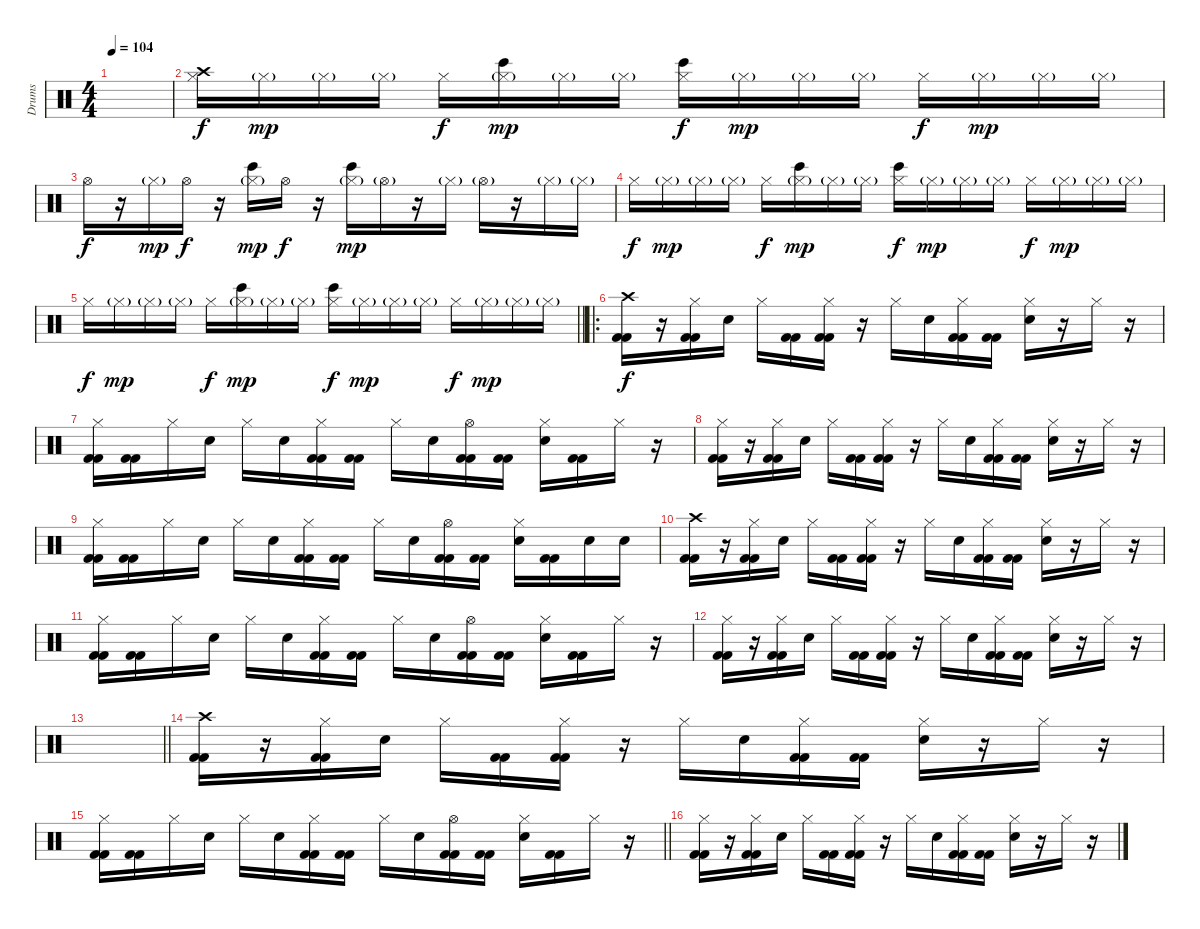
\track ("Drums" "Drums") {instrument percussion}
\staff {score}
\articulation defaults
\ts (4 4)
\tempo 104
\clef neutral
\ks c
|
("Crash high (hit)" "Hi-Hat (closed)").16 "Hi-Hat (closed)"{g}.16{dy mp} "Hi-Hat (closed)"{g}.16 "Hi-Hat (closed)"{g}.16 "Hi-Hat (closed)".16{dy f} ("Bongo High (hit)" "Hi-Hat (closed)"{g}).16{dy mp} "Hi-Hat (closed)"{g}.16 "Hi-Hat (closed)"{g}.16 ("Bongo High (hit)" "Hi-Hat (closed)").16{dy f} "Hi-Hat (closed)"{g}.16{dy mp} "Hi-Hat (closed)"{g}.16 "Hi-Hat (closed)"{g}.16 "Hi-Hat (closed)".16{dy f} "Hi-Hat (closed)"{g}.16{dy mp} "Hi-Hat (closed)"{g}.16 "Hi-Hat (closed)"{g}.16 |
"Hi-Hat (open)".16{dy f} r.16 "Hi-Hat (closed)"{g}.16{dy mp} "Hi-Hat (open)".16{dy f} r.16 ("Bongo High (hit)" "Hi-Hat (closed)"{g}).16{dy mp} "Hi-Hat (open)".16{dy f} r.16 ("Bongo High (hit)" "Hi-Hat (closed)"{g}).16{dy mp} "Hi-Hat (open)"{g}.16 r.16 "Hi-Hat (closed)"{g}.16 "Hi-Hat (open)"{g}.16 r.16 "Hi-Hat (closed)"{g}.16 "Hi-Hat (closed)"{g}.16 |
"Hi-Hat (closed)".16{dy f} "Hi-Hat (closed)"{g}.16{dy mp} "Hi-Hat (closed)"{g}.16 "Hi-Hat (closed)"{g}.16 "Hi-Hat (closed)".16{dy f} ("Bongo High (hit)" "Hi-Hat (closed)"{g}).16{dy mp} "Hi-Hat (closed)"{g}.16 "Hi-Hat (closed)"{g}.16 ("Bongo High (hit)" "Hi-Hat (closed)").16{dy f} "Hi-Hat (closed)"{g}.16{dy mp} "Hi-Hat (closed)"{g}.16 "Hi-Hat (closed)"{g}.16 "Hi-Hat (closed)".16{dy f} "Hi-Hat (closed)"{g}.16{dy mp} "Hi-Hat (closed)"{g}.16 "Hi-Hat (closed)"{g}.16 |
\barLineRight lightlight "Hi-Hat (closed)".16{dy f} "Hi-Hat (closed)"{g}.16{dy mp} "Hi-Hat (closed)"{g}.16 "Hi-Hat (closed)"{g}.16 "Hi-Hat (closed)".16{dy f}
("Bongo High (hit)" "Hi-Hat (closed)"{g}).16{dy mp} "Hi-Hat (closed)"{g}.16 "Hi-Hat (closed)"{g}.16 ("Bongo High (hit)" "Hi-Hat (closed)").16{dy f} "Hi-Hat (closed)"{g}.16{dy mp} "Hi-Hat (closed)"{g}.16 "Hi-Hat (closed)"{g}.16 "Hi-Hat (closed)".16{dy f} "Hi-Hat (closed)"{g}.16{dy mp} "Hi-Hat (closed)"{g}.16 "Hi-Hat (closed)"{g}.16 |
\ro
\section ("" "")
("Crash high (hit)" "Kick (hit) 2" "Kick (hit) 2").16{dy f} r.16 ("Hi-Hat (closed)" "Kick (hit) 2" "Kick (hit) 2").16 "Snare (hit) 2".16 "Hi-Hat (closed)".16 ("Kick (hit) 2" "Kick (hit) 2").16 ("Hi-Hat (closed)" "Kick (hit) 2" "Kick (hit) 2").16 r.16 "Hi-Hat (closed)".16 "Snare (hit) 2".16 ("Hi-Hat (closed)" "Kick (hit) 2" "Kick (hit) 2").16 ("Kick (hit) 2" "Kick (hit) 2").16 ("Hi-Hat (closed)" "Snare (hit) 2").16 r.16 "Hi-Hat (closed)".16 r.16 |
("Hi-Hat (closed)" "Kick (hit) 2" "Kick (hit) 2").16 ("Kick (hit) 2" "Kick (hit) 2").16 "Hi-Hat (closed)".16 "Snare (hit) 2".16 "Hi-Hat (closed)".16 "Snare (hit) 2".16 ("Hi-Hat (closed)" "Kick (hit) 2" "Kick (hit) 2").16 ("Kick (hit) 2" "Kick (hit) 2").16 "Hi-Hat (closed)".16 "Snare (hit) 2".16 ("Hi-Hat (open)" "Kick (hit) 2" "Kick (hit) 2").16 ("Kick (hit) 2" "Kick (hit) 2").16 ("Hi-Hat (closed)" "Snare (hit) 2").16 ("Kick (hit) 2" "Kick (hit) 2").16 "Hi-Hat (closed)".16 r.16 |
("Hi-Hat (closed)" "Kick (hit) 2" "Kick (hit) 2").16 r.16 ("Hi-Hat (closed)" "Kick (hit) 2" "Kick (hit) 2").16 "Snare (hit) 2".16 "Hi-Hat (closed)".16 ("Kick (hit) 2" "Kick (hit) 2").16 ("Hi-Hat (closed)" "Kick (hit) 2" "Kick (hit) 2").16 r.16 "Hi-Hat (closed)".16 "Snare (hit) 2".16 ("Hi-Hat (closed)" "Kick (hit) 2" "Kick (hit) 2").16 ("Kick (hit) 2" "Kick (hit) 2").16 ("Hi-Hat (closed)" "Snare (hit) 2").16 r.16 "Hi-Hat (closed)".16 r.16 |
("Hi-Hat (closed)" "Kick (hit) 2" "Kick (hit) 2").16 ("Kick (hit) 2" "Kick (hit) 2").16 "Hi-Hat (closed)".16 "Snare (hit) 2".16 "Hi-Hat (closed)".16 "Snare (hit) 2".16 ("Hi-Hat (closed)" "Kick (hit) 2" "Kick (hit) 2").16 ("Kick (hit) 2" "Kick (hit) 2").16 "Hi-Hat (closed)".16 "Snare (hit) 2".16 ("Hi-Hat (open)" "Kick (hit) 2" "Kick (hit) 2").16 ("Kick (hit) 2" "Kick (hit) 2").16 ("Hi-Hat (closed)" "Snare (hit) 2").16 ("Kick (hit) 2" "Kick (hit) 2").16 "Snare (hit) 2".16 "Snare (hit) 2".16 |
("Crash high (hit)" "Kick (hit) 2" "Kick (hit) 2").16 r.16 ("Hi-Hat (closed)" "Kick (hit) 2" "Kick (hit) 2").16 "Snare (hit) 2".16 "Hi-Hat (closed)".16 ("Kick (hit) 2" "Kick (hit) 2").16 ("Hi-Hat (closed)" "Kick (hit) 2" "Kick (hit) 2").16 r.16 "Hi-Hat (closed)".16 "Snare (hit) 2".16 ("Hi-Hat (closed)" "Kick (hit) 2" "Kick (hit) 2").16 ("Kick (hit) 2" "Kick (hit) 2").16 ("Hi-Hat (closed)" "Snare (hit) 2").16 r.16 "Hi-Hat (closed)".16 r.16 |
("Hi-Hat (closed)" "Kick (hit) 2" "Kick (hit) 2").16 ("Kick (hit) 2" "Kick (hit) 2").16 "Hi-Hat (closed)".16 "Snare (hit) 2".16 "Hi-Hat (closed)".16 "Snare (hit) 2".16 ("Hi-Hat (closed)" "Kick (hit) 2" "Kick (hit) 2").16 ("Kick (hit) 2" "Kick (hit) 2").16 "Hi-Hat (closed)".16 "Snare (hit) 2".16 ("Hi-Hat (open)" "Kick (hit) 2" "Kick (hit) 2").16 ("Kick (hit) 2" "Kick (hit) 2").16 ("Hi-Hat (closed)" "Snare (hit) 2").16 ("Kick (hit) 2" "Kick (hit) 2").16 "Hi-Hat (closed)".16 r.16 |
("Hi-Hat (closed)" "Kick (hit) 2" "Kick (hit) 2").16 r.16 ("Hi-Hat (closed)" "Kick (hit) 2" "Kick (hit) 2").16 "Snare (hit) 2".16 "Hi-Hat (closed)".16 ("Kick (hit) 2" "Kick (hit) 2").16 ("Hi-Hat (closed)" "Kick (hit) 2" "Kick (hit) 2").16 r.16 "Hi-Hat (closed)".16 "Snare (hit) 2".16 ("Hi-Hat (closed)" "Kick (hit) 2" "Kick (hit) 2").16 ("Kick (hit) 2" "Kick (hit) 2").16 ("Hi-Hat (closed)" "Snare (hit) 2").16 r.16 "Hi-Hat (closed)".16 r.16 |
\barLineRight lightlight
|
\section ("" "")
("Crash high (hit)" "Kick (hit) 2" "Kick (hit) 2").16 r.16 ("Hi-Hat (closed)" "Kick (hit) 2" "Kick (hit) 2").16 "Snare (hit) 2".16 "Hi-Hat (closed)".16 ("Kick (hit) 2" "Kick (hit) 2").16 ("Hi-Hat (closed)" "Kick (hit) 2" "Kick (hit) 2").16 r.16 "Hi-Hat (closed)".16 "Snare (hit) 2".16 ("Hi-Hat (closed)" "Kick (hit) 2" "Kick (hit) 2").16 ("Kick (hit) 2" "Kick (hit) 2").16 ("Hi-Hat (closed)" "Snare (hit) 2").16 r.16 "Hi-Hat (closed)".16 r.16 |
\barLineRight lightlight
("Hi-Hat (closed)" "Kick (hit) 2" "Kick (hit) 2").16 ("Kick (hit) 2" "Kick (hit) 2").16 "Hi-Hat (closed)".16 "Snare (hit) 2".16 "Hi-Hat (closed)".16 "Snare (hit) 2".16 ("Hi-Hat (closed)" "Kick (hit) 2" "Kick (hit) 2").16 ("Kick (hit) 2" "Kick (hit) 2").16 "Hi-Hat (closed)".16 "Snare (hit) 2".16 ("Hi-Hat (open)" "Kick (hit) 2" "Kick (hit) 2").16 ("Kick (hit) 2" "Kick (hit) 2").16 ("Hi-Hat (closed)" "Snare (hit) 2").16 ("Kick (hit) 2" "Kick (hit) 2").16 "Hi-Hat (closed)".16 r.16 |
("Hi-Hat (closed)" "Kick (hit) 2" "Kick (hit) 2").16 r.16 ("Hi-Hat (closed)" "Kick (hit) 2" "Kick (hit) 2").16 "Snare (hit) 2".16 "Hi-Hat (closed)".16 ("Kick (hit) 2" "Kick (hit) 2").16 ("Hi-Hat (closed)" "Kick (hit) 2" "Kick (hit) 2").16 r.16 "Hi-Hat (closed)".16 "Snare (hit) 2".16 ("Hi-Hat (closed)" "Kick (hit) 2" "Kick (hit) 2").16 ("Kick (hit) 2" "Kick (hit) 2").16 ("Hi-Hat (closed)" "Snare (hit) 2").16 r.16 "Hi-Hat (closed)".16 r.16
